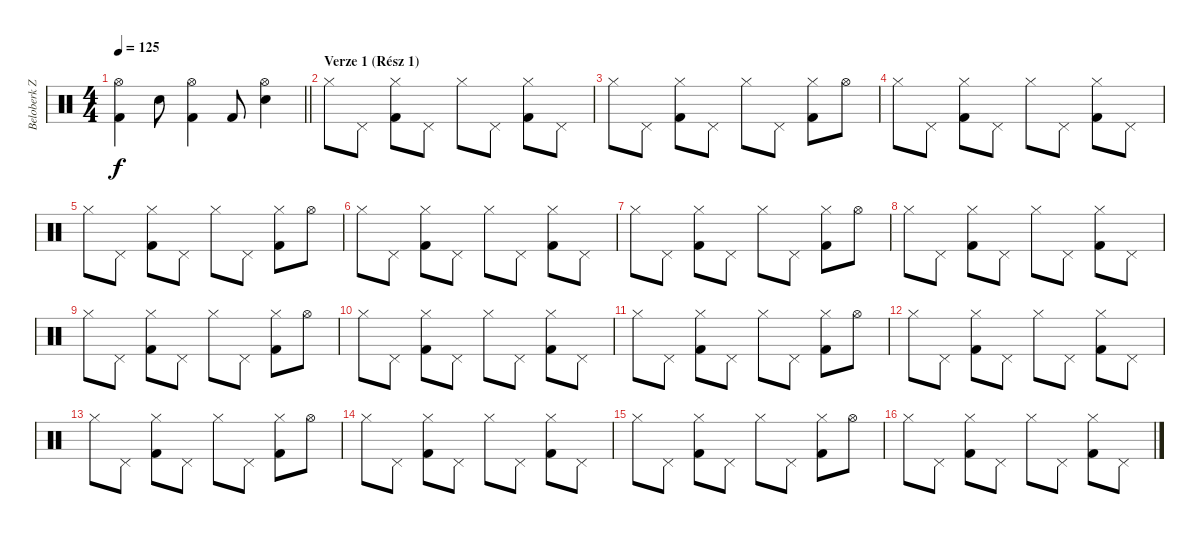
\track ("Beloberk Zsolt - Dobok" "Beloberk Z") {instrument percussion}
\staff {score}
\articulation defaults
\ts (4 4)
\tempo 125
\clef neutral
\barLineRight lightlight
\ks c
("Hi-Hat (open)" "Kick (hit) 2").4{dy f} "Electric Snare (hit)".8 ("Hi-Hat (open)" "Kick (hit) 2").4 "Kick (hit) 2".8 ("Hi-Hat (open)" "Electric Snare (hit)").4 |
\section ("" "Verze 1 (Rész 1)")
"Hi-Hat (closed)".8 "Pedal Hi-Hat (hit)".8 ("Hi-Hat (closed)" "Kick (hit) 2").8 "Pedal Hi-Hat (hit)".8 "Hi-Hat (closed)".8 "Pedal Hi-Hat (hit)".8 ("Hi-Hat (closed)" "Kick (hit) 2").8 "Pedal Hi-Hat (hit)".8 |
"Hi-Hat (closed)".8 "Pedal Hi-Hat (hit)".8 ("Hi-Hat (closed)" "Kick (hit) 2").8 "Pedal Hi-Hat (hit)".8 "Hi-Hat (closed)".8 "Pedal Hi-Hat (hit)".8 ("Hi-Hat (closed)" "Kick (hit) 2").8 "Hi-Hat (open)".8 |
"Hi-Hat (closed)".8 "Pedal Hi-Hat (hit)".8 ("Hi-Hat (closed)" "Kick (hit) 2").8 "Pedal Hi-Hat (hit)".8 "Hi-Hat (closed)".8 "Pedal Hi-Hat (hit)".8 ("Hi-Hat (closed)" "Kick (hit) 2").8 "Pedal Hi-Hat (hit)".8 |
"Hi-Hat (closed)".8 "Pedal Hi-Hat (hit)".8 ("Hi-Hat (closed)" "Kick (hit) 2").8 "Pedal Hi-Hat (hit)".8 "Hi-Hat (closed)".8 "Pedal Hi-Hat (hit)".8 ("Hi-Hat (closed)" "Kick (hit) 2").8 "Hi-Hat (open)".8 |
"Hi-Hat (closed)".8 "Pedal Hi-Hat (hit)".8 ("Hi-Hat (closed)" "Kick (hit) 2").8 "Pedal Hi-Hat (hit)".8 "Hi-Hat (closed)".8 "Pedal Hi-Hat (hit)".8 ("Hi-Hat (closed)" "Kick (hit) 2").8 "Pedal Hi-Hat (hit)".8 |
"Hi-Hat (closed)".8 "Pedal Hi-Hat (hit)".8 ("Hi-Hat (closed)" "Kick (hit) 2").8 "Pedal Hi-Hat (hit)".8 "Hi-Hat (closed)".8 "Pedal Hi-Hat (hit)".8 ("Hi-Hat (closed)" "Kick (hit) 2").8 "Hi-Hat (open)".8 |
"Hi-Hat (closed)".8 "Pedal Hi-Hat (hit)".8 ("Hi-Hat (closed)" "Kick (hit) 2").8 "Pedal Hi-Hat (hit)".8 "Hi-Hat (closed)".8 "Pedal Hi-Hat (hit)".8 ("Hi-Hat (closed)" "Kick (hit) 2").8 "Pedal Hi-Hat (hit)".8 |
"Hi-Hat (closed)".8 "Pedal Hi-Hat (hit)".8 ("Hi-Hat (closed)" "Kick (hit) 2").8 "Pedal Hi-Hat (hit)".8 "Hi-Hat (closed)".8 "Pedal Hi-Hat (hit)".8 ("Hi-Hat (closed)" "Kick (hit) 2").8 "Hi-Hat (open)".8 |
"Hi-Hat (closed)".8 "Pedal Hi-Hat (hit)".8 ("Hi-Hat (closed)" "Kick (hit) 2").8 "Pedal Hi-Hat (hit)".8 "Hi-Hat (closed)".8 "Pedal Hi-Hat (hit)".8 ("Hi-Hat (closed)" "Kick (hit) 2").8 "Pedal Hi-Hat (hit)".8 |
"Hi-Hat (closed)".8 "Pedal Hi-Hat (hit)".8 ("Hi-Hat (closed)" "Kick (hit) 2").8 "Pedal Hi-Hat (hit)".8 "Hi-Hat (closed)".8 "Pedal Hi-Hat (hit)".8 ("Hi-Hat (closed)" "Kick (hit) 2").8 "Hi-Hat (open)".8 |
"Hi-Hat (closed)".8 "Pedal Hi-Hat (hit)".8 ("Hi-Hat (closed)" "Kick (hit) 2").8 "Pedal Hi-Hat (hit)".8 "Hi-Hat (closed)".8 "Pedal Hi-Hat (hit)".8 ("Hi-Hat (closed)" "Kick (hit) 2").8 "Pedal Hi-Hat (hit)".8 |
"Hi-Hat (closed)".8 "Pedal Hi-Hat (hit)".8 ("Hi-Hat (closed)" "Kick (hit) 2").8 "Pedal Hi-Hat (hit)".8 "Hi-Hat (closed)".8 "Pedal Hi-Hat (hit)".8 ("Hi-Hat (closed)" "Kick (hit) 2").8 "Hi-Hat (open)".8 |
"Hi-Hat (closed)".8 "Pedal Hi-Hat (hit)".8 ("Hi-Hat (closed)" "Kick (hit) 2").8 "Pedal Hi-Hat (hit)".8 "Hi-Hat (closed)".8 "Pedal Hi-Hat (hit)".8 ("Hi-Hat (closed)" "Kick (hit) 2").8 "Pedal Hi-Hat (hit)".8 |
"Hi-Hat (closed)".8 "Pedal Hi-Hat (hit)".8 ("Hi-Hat (closed)" "Kick (hit) 2").8 "Pedal Hi-Hat (hit)".8 "Hi-Hat (closed)".8 "Pedal Hi-Hat (hit)".8 ("Hi-Hat (closed)" "Kick (hit) 2").8 "Hi-Hat (open)".8 |
"Hi-Hat (closed)".8 "Pedal Hi-Hat (hit)".8 ("Hi-Hat (closed)" "Kick (hit) 2").8 "Pedal Hi-Hat (hit)".8 "Hi-Hat (closed)".8 "Pedal Hi-Hat (hit)".8 ("Hi-Hat (closed)" "Kick (hit) 2").8 "Pedal Hi-Hat (hit)".8
